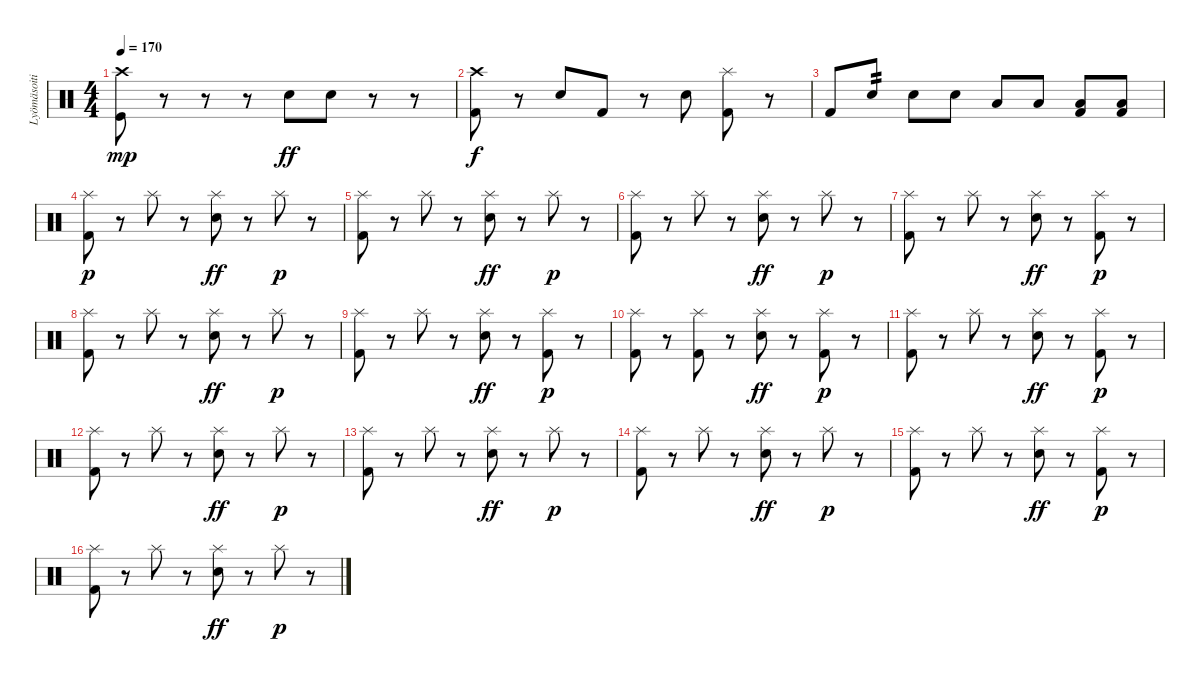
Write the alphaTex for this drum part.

\track ("Lyömäsoitin" "Lyömäsoiti") {instrument percussion}
\staff {score}
\articulation defaults
\ts (4 4)
\tempo 170
\clef neutral
\ks c
("Kick (hit)" "Crash high (hit)").8{dy mp} r.8 r.8 r.8 "Electric Snare (hit)".8{dy ff} "Electric Snare (hit)".8 r.8 r.8 |
("Kick (hit) 2" "Crash high (hit)").8{dy f} r.8 "Electric Snare (hit)".8 "Kick (hit) 2".8 r.8 "Electric Snare (hit)".8 ("Kick (hit) 2" "Splash (hit)").8 r.8 |
"Kick (hit) 2".8 "Electric Snare (hit)".8{tp 2} "Electric Snare (hit)".8 "Electric Snare (hit)".8 "Low Floor Tom (hit)".8 "Low Floor Tom (hit)".8 ("Low Tom (hit)" "Kick (hit) 2").8 ("Low Tom (hit)" "Kick (hit) 2").8 |
("Kick (hit) 2" "Splash (hit)").8{dy p} r.8 "Splash (hit)".8 r.8 ("Splash (hit)" "Electric Snare (hit)").8{dy ff} r.8 "Splash (hit)".8{dy p} r.8 |
("Kick (hit) 2" "Splash (hit)").8 r.8 "Splash (hit)".8 r.8 ("Splash (hit)" "Electric Snare (hit)").8{dy ff} r.8 "Splash (hit)".8{dy p} r.8 |
("Kick (hit) 2" "Splash (hit)").8 r.8 "Splash (hit)".8 r.8 ("Splash (hit)" "Electric Snare (hit)").8{dy ff} r.8 "Splash (hit)".8{dy p} r.8 |
("Kick (hit) 2" "Splash (hit)").8 r.8 "Splash (hit)".8 r.8 ("Splash (hit)" "Electric Snare (hit)").8{dy ff} r.8 ("Kick (hit) 2" "Splash (hit)").8{dy p} r.8 |
("Kick (hit) 2" "Splash (hit)").8 r.8 "Splash (hit)".8 r.8 ("Splash (hit)" "Electric Snare (hit)").8{dy ff} r.8 "Splash (hit)".8{dy p} r.8 |
("Kick (hit) 2" "Splash (hit)").8 r.8 "Splash (hit)".8 r.8 ("Splash (hit)" "Electric Snare (hit)").8{dy ff} r.8 ("Kick (hit) 2" "Splash (hit)").8{dy p} r.8 |
("Kick (hit) 2" "Splash (hit)").8 r.8 ("Kick (hit) 2" "Splash (hit)").8 r.8 ("Splash (hit)" "Electric Snare (hit)").8{dy ff} r.8 ("Kick (hit) 2" "Splash (hit)").8{dy p} r.8 |
("Kick (hit) 2" "Splash (hit)").8 r.8 "Splash (hit)".8 r.8 ("Splash (hit)" "Electric Snare (hit)").8{dy ff} r.8 ("Kick (hit) 2" "Splash (hit)").8{dy p} r.8 |
("Kick (hit) 2" "Splash (hit)").8 r.8 "Splash (hit)".8 r.8 ("Splash (hit)" "Electric Snare (hit)").8{dy ff} r.8 "Splash (hit)".8{dy p} r.8 |
("Kick (hit) 2" "Splash (hit)").8 r.8 "Splash (hit)".8 r.8 ("Splash (hit)" "Electric Snare (hit)").8{dy ff} r.8 "Splash (hit)".8{dy p} r.8 |
("Kick (hit) 2" "Splash (hit)").8 r.8 "Splash (hit)".8 r.8 ("Splash (hit)" "Electric Snare (hit)").8{dy ff} r.8 "Splash (hit)".8{dy p} r.8 |
("Kick (hit) 2" "Splash (hit)").8 r.8 "Splash (hit)".8 r.8 ("Splash (hit)" "Electric Snare (hit)").8{dy ff} r.8 ("Kick (hit) 2" "Splash (hit)").8{dy p} r.8 |
("Kick (hit) 2" "Splash (hit)").8 r.8 "Splash (hit)".8 r.8 ("Splash (hit)" "Electric Snare (hit)").8{dy ff} r.8 "Splash (hit)".8{dy p} r.8
